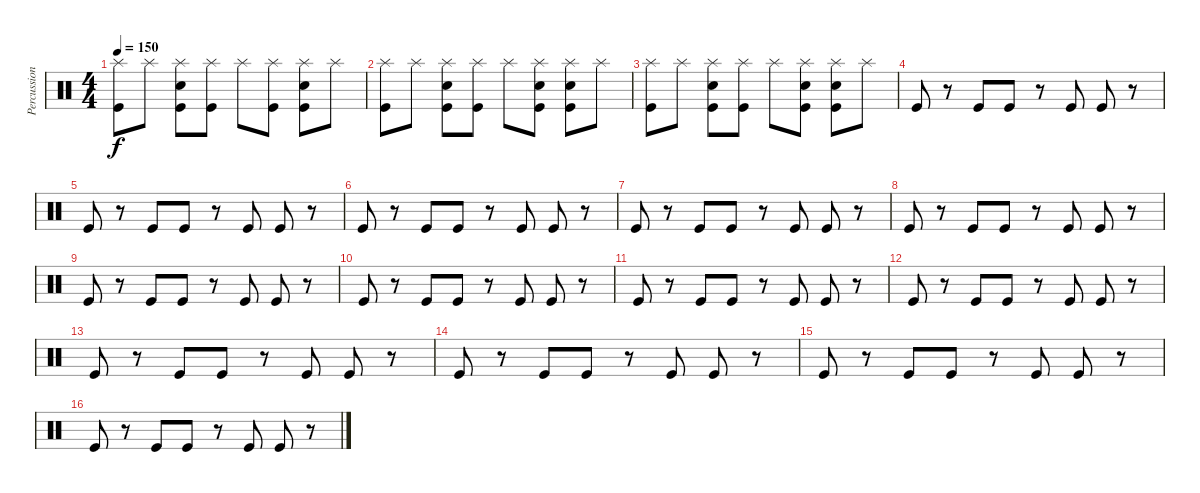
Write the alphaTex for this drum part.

\track ("Percussion" "Percussion") {instrument percussion}
\staff {score}
\articulation defaults
\ts (4 4)
\tempo 150
\clef neutral
\ks c
("Splash (hit)" "Kick (hit)").8{dy f} "Splash (hit)".8 ("Splash (hit)" "Snare (hit) 2" "Kick (hit)").8 ("Splash (hit)" "Kick (hit)").8 "Splash (hit)".8 ("Splash (hit)" "Kick (hit)").8 ("Splash (hit)" "Snare (hit) 2" "Kick (hit)").8 "Splash (hit)".8 |
("Splash (hit)" "Kick (hit)").8 "Splash (hit)".8 ("Splash (hit)" "Snare (hit) 2" "Kick (hit)").8 ("Splash (hit)" "Kick (hit)").8 "Splash (hit)".8 ("Splash (hit)" "Snare (hit) 2" "Kick (hit)").8 ("Splash (hit)" "Snare (hit) 2" "Kick (hit)").8 "Splash (hit)".8 |
("Splash (hit)" "Kick (hit)").8 "Splash (hit)".8 ("Splash (hit)" "Snare (hit) 2" "Kick (hit)").8 ("Splash (hit)" "Kick (hit)").8 "Splash (hit)".8 ("Splash (hit)" "Snare (hit) 2" "Kick (hit)").8 ("Splash (hit)" "Snare (hit) 2" "Kick (hit)").8 "Splash (hit)".8 |
"Kick (hit)".8 r.8 "Kick (hit)".8 "Kick (hit)".8 r.8 "Kick (hit)".8 "Kick (hit)".8 r.8 |
"Kick (hit)".8 r.8 "Kick (hit)".8 "Kick (hit)".8 r.8 "Kick (hit)".8 "Kick (hit)".8 r.8 |
"Kick (hit)".8 r.8 "Kick (hit)".8 "Kick (hit)".8 r.8 "Kick (hit)".8 "Kick (hit)".8 r.8 |
"Kick (hit)".8 r.8 "Kick (hit)".8 "Kick (hit)".8 r.8 "Kick (hit)".8 "Kick (hit)".8 r.8 |
"Kick (hit)".8 r.8 "Kick (hit)".8 "Kick (hit)".8 r.8 "Kick (hit)".8 "Kick (hit)".8 r.8 |
"Kick (hit)".8 r.8 "Kick (hit)".8 "Kick (hit)".8 r.8 "Kick (hit)".8 "Kick (hit)".8 r.8 |
"Kick (hit)".8 r.8 "Kick (hit)".8 "Kick (hit)".8 r.8 "Kick (hit)".8 "Kick (hit)".8 r.8 |
"Kick (hit)".8 r.8 "Kick (hit)".8 "Kick (hit)".8 r.8 "Kick (hit)".8 "Kick (hit)".8 r.8 |
"Kick (hit)".8 r.8 "Kick (hit)".8 "Kick (hit)".8 r.8 "Kick (hit)".8 "Kick (hit)".8 r.8 |
"Kick (hit)".8 r.8 "Kick (hit)".8 "Kick (hit)".8 r.8 "Kick (hit)".8 "Kick (hit)".8 r.8 |
"Kick (hit)".8 r.8 "Kick (hit)".8 "Kick (hit)".8 r.8 "Kick (hit)".8 "Kick (hit)".8 r.8 |
"Kick (hit)".8 r.8 "Kick (hit)".8 "Kick (hit)".8 r.8 "Kick (hit)".8 "Kick (hit)".8 r.8 |
"Kick (hit)".8 r.8 "Kick (hit)".8 "Kick (hit)".8 r.8 "Kick (hit)".8 "Kick (hit)".8 r.8
